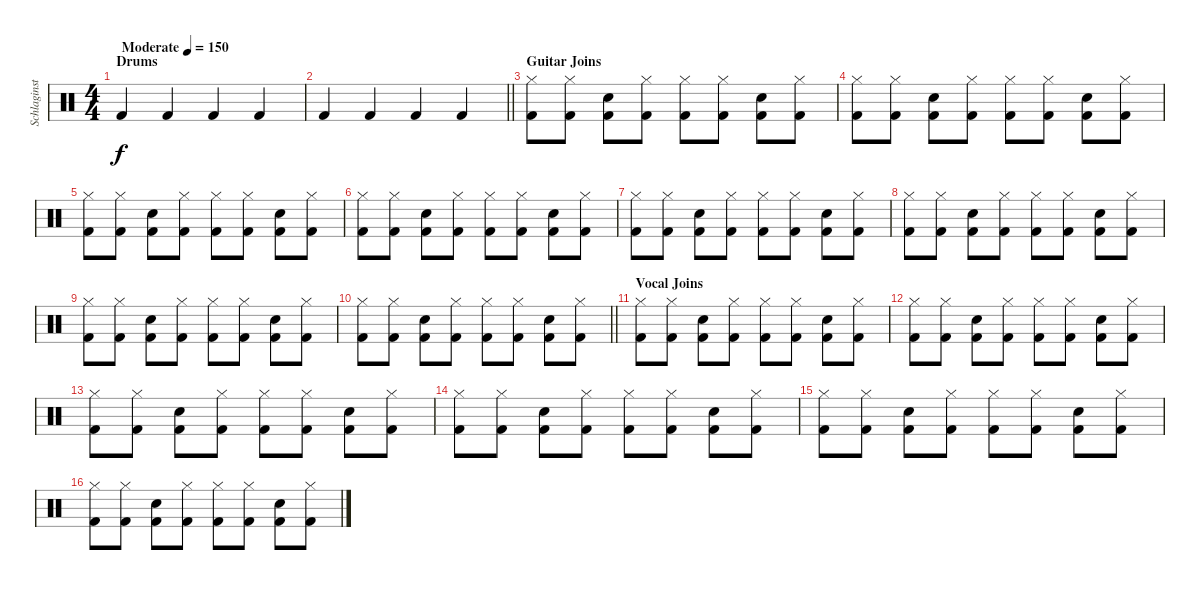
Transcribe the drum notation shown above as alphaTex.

\track ("Schlaginstrumente - Auswahl" "Schlaginst") {instrument percussion}
\staff {score}
\articulation defaults
\ts (4 4)
\section ("" "Drums")
\tempo (150 "Moderate")
\clef neutral
\ks c "Kick (hit) 2".4{dy f} "Kick (hit) 2".4 "Kick (hit) 2".4 "Kick (hit) 2".4
|
\barLineRight lightlight "Kick (hit) 2".4 "Kick (hit) 2".4 "Kick (hit) 2".4 "Kick (hit) 2".4
|
\section ("" "Guitar Joins")
("Hi-Hat (closed)" "Kick (hit) 2").8 ("Hi-Hat (closed)" "Kick (hit) 2").8 ("Snare (hit) 2" "Kick (hit) 2").8 ("Hi-Hat (closed)" "Kick (hit) 2").8 ("Hi-Hat (closed)" "Kick (hit) 2").8 ("Hi-Hat (closed)" "Kick (hit) 2").8 ("Snare (hit) 2" "Kick (hit) 2").8 ("Hi-Hat (closed)" "Kick (hit) 2").8 |
("Hi-Hat (closed)" "Kick (hit) 2").8 ("Hi-Hat (closed)" "Kick (hit) 2").8 ("Snare (hit) 2" "Kick (hit) 2").8 ("Hi-Hat (closed)" "Kick (hit) 2").8 ("Hi-Hat (closed)" "Kick (hit) 2").8 ("Hi-Hat (closed)" "Kick (hit) 2").8 ("Snare (hit) 2" "Kick (hit) 2").8 ("Hi-Hat (closed)" "Kick (hit) 2").8 |
("Hi-Hat (closed)" "Kick (hit) 2").8 ("Hi-Hat (closed)" "Kick (hit) 2").8 ("Snare (hit) 2" "Kick (hit) 2").8 ("Hi-Hat (closed)" "Kick (hit) 2").8 ("Hi-Hat (closed)" "Kick (hit) 2").8 ("Hi-Hat (closed)" "Kick (hit) 2").8 ("Snare (hit) 2" "Kick (hit) 2").8 ("Hi-Hat (closed)" "Kick (hit) 2").8 |
("Hi-Hat (closed)" "Kick (hit) 2").8 ("Hi-Hat (closed)" "Kick (hit) 2").8 ("Snare (hit) 2" "Kick (hit) 2").8 ("Hi-Hat (closed)" "Kick (hit) 2").8 ("Hi-Hat (closed)" "Kick (hit) 2").8 ("Hi-Hat (closed)" "Kick (hit) 2").8 ("Snare (hit) 2" "Kick (hit) 2").8 ("Hi-Hat (closed)" "Kick (hit) 2").8 |
("Hi-Hat (closed)" "Kick (hit) 2").8 ("Hi-Hat (closed)" "Kick (hit) 2").8 ("Snare (hit) 2" "Kick (hit) 2").8 ("Hi-Hat (closed)" "Kick (hit) 2").8 ("Hi-Hat (closed)" "Kick (hit) 2").8 ("Hi-Hat (closed)" "Kick (hit) 2").8 ("Snare (hit) 2" "Kick (hit) 2").8 ("Hi-Hat (closed)" "Kick (hit) 2").8 |
("Hi-Hat (closed)" "Kick (hit) 2").8 ("Hi-Hat (closed)" "Kick (hit) 2").8 ("Snare (hit) 2" "Kick (hit) 2").8 ("Hi-Hat (closed)" "Kick (hit) 2").8 ("Hi-Hat (closed)" "Kick (hit) 2").8 ("Hi-Hat (closed)" "Kick (hit) 2").8 ("Snare (hit) 2" "Kick (hit) 2").8 ("Hi-Hat (closed)" "Kick (hit) 2").8 |
("Hi-Hat (closed)" "Kick (hit) 2").8 ("Hi-Hat (closed)" "Kick (hit) 2").8 ("Snare (hit) 2" "Kick (hit) 2").8 ("Hi-Hat (closed)" "Kick (hit) 2").8 ("Hi-Hat (closed)" "Kick (hit) 2").8 ("Hi-Hat (closed)" "Kick (hit) 2").8 ("Snare (hit) 2" "Kick (hit) 2").8 ("Hi-Hat (closed)" "Kick (hit) 2").8 |
\barLineRight lightlight
("Hi-Hat (closed)" "Kick (hit) 2").8 ("Hi-Hat (closed)" "Kick (hit) 2").8 ("Snare (hit) 2" "Kick (hit) 2").8 ("Hi-Hat (closed)" "Kick (hit) 2").8 ("Hi-Hat (closed)" "Kick (hit) 2").8 ("Hi-Hat (closed)" "Kick (hit) 2").8 ("Snare (hit) 2" "Kick (hit) 2").8 ("Hi-Hat (closed)" "Kick (hit) 2").8 |
\section ("" "Vocal Joins")
("Hi-Hat (closed)" "Kick (hit) 2").8 ("Hi-Hat (closed)" "Kick (hit) 2").8 ("Snare (hit) 2" "Kick (hit) 2").8 ("Hi-Hat (closed)" "Kick (hit) 2").8 ("Hi-Hat (closed)" "Kick (hit) 2").8 ("Hi-Hat (closed)" "Kick (hit) 2").8 ("Snare (hit) 2" "Kick (hit) 2").8 ("Hi-Hat (closed)" "Kick (hit) 2").8 |
("Hi-Hat (closed)" "Kick (hit) 2").8 ("Hi-Hat (closed)" "Kick (hit) 2").8 ("Snare (hit) 2" "Kick (hit) 2").8 ("Hi-Hat (closed)" "Kick (hit) 2").8 ("Hi-Hat (closed)" "Kick (hit) 2").8 ("Hi-Hat (closed)" "Kick (hit) 2").8 ("Snare (hit) 2" "Kick (hit) 2").8 ("Hi-Hat (closed)" "Kick (hit) 2").8 |
("Hi-Hat (closed)" "Kick (hit) 2").8 ("Hi-Hat (closed)" "Kick (hit) 2").8 ("Snare (hit) 2" "Kick (hit) 2").8 ("Hi-Hat (closed)" "Kick (hit) 2").8 ("Hi-Hat (closed)" "Kick (hit) 2").8 ("Hi-Hat (closed)" "Kick (hit) 2").8 ("Snare (hit) 2" "Kick (hit) 2").8 ("Hi-Hat (closed)" "Kick (hit) 2").8 |
("Hi-Hat (closed)" "Kick (hit) 2").8 ("Hi-Hat (closed)" "Kick (hit) 2").8 ("Snare (hit) 2" "Kick (hit) 2").8 ("Hi-Hat (closed)" "Kick (hit) 2").8 ("Hi-Hat (closed)" "Kick (hit) 2").8 ("Hi-Hat (closed)" "Kick (hit) 2").8 ("Snare (hit) 2" "Kick (hit) 2").8 ("Hi-Hat (closed)" "Kick (hit) 2").8 |
("Hi-Hat (closed)" "Kick (hit) 2").8 ("Hi-Hat (closed)" "Kick (hit) 2").8 ("Snare (hit) 2" "Kick (hit) 2").8 ("Hi-Hat (closed)" "Kick (hit) 2").8 ("Hi-Hat (closed)" "Kick (hit) 2").8 ("Hi-Hat (closed)" "Kick (hit) 2").8 ("Snare (hit) 2" "Kick (hit) 2").8 ("Hi-Hat (closed)" "Kick (hit) 2").8 |
("Hi-Hat (closed)" "Kick (hit) 2").8 ("Hi-Hat (closed)" "Kick (hit) 2").8 ("Snare (hit) 2" "Kick (hit) 2").8 ("Hi-Hat (closed)" "Kick (hit) 2").8 ("Hi-Hat (closed)" "Kick (hit) 2").8 ("Hi-Hat (closed)" "Kick (hit) 2").8 ("Snare (hit) 2" "Kick (hit) 2").8 ("Hi-Hat (closed)" "Kick (hit) 2").8
